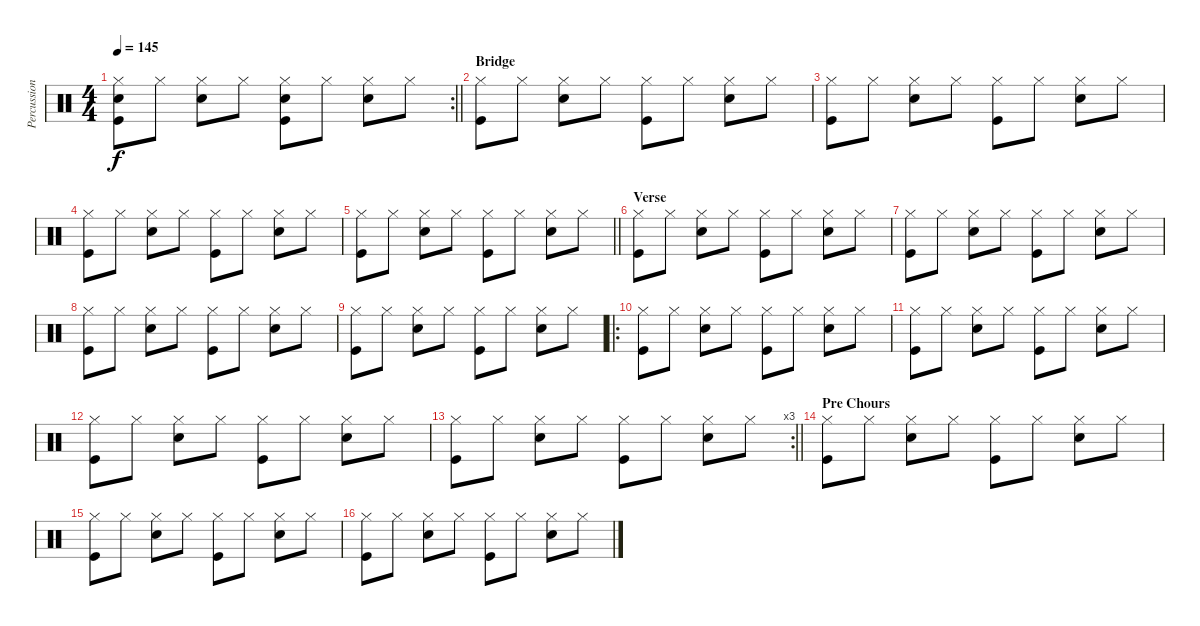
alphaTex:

\track ("Percussion" "Percussion") {instrument percussion}
\staff {score}
\articulation defaults
\rc 2
\ts (4 4)
\tempo 145
\clef neutral
\barLineRight lightlight
\ks c
("Electric Snare (hit)" "Kick (hit)" "Hi-Hat (closed)").8{dy f} "Hi-Hat (closed)".8 ("Hi-Hat (closed)" "Electric Snare (hit)").8 "Hi-Hat (closed)".8 ("Hi-Hat (closed)" "Kick (hit)" "Electric Snare (hit)").8 "Hi-Hat (closed)".8 ("Hi-Hat (closed)" "Electric Snare (hit)").8 "Hi-Hat (closed)".8 |
\section ("" "Bridge")
("Hi-Hat (closed)" "Kick (hit)").8 "Hi-Hat (closed)".8 ("Hi-Hat (closed)" "Snare (hit) 2").8 "Hi-Hat (closed)".8 ("Hi-Hat (closed)" "Kick (hit)").8 "Hi-Hat (closed)".8 ("Hi-Hat (closed)" "Electric Snare (hit)").8 "Hi-Hat (closed)".8 |
("Hi-Hat (closed)" "Kick (hit)").8 "Hi-Hat (closed)".8 ("Hi-Hat (closed)" "Snare (hit) 2").8 "Hi-Hat (closed)".8 ("Hi-Hat (closed)" "Kick (hit)").8 "Hi-Hat (closed)".8 ("Hi-Hat (closed)" "Electric Snare (hit)").8 "Hi-Hat (closed)".8 |
("Hi-Hat (closed)" "Kick (hit)").8 "Hi-Hat (closed)".8 ("Hi-Hat (closed)" "Snare (hit) 2").8 "Hi-Hat (closed)".8 ("Hi-Hat (closed)" "Kick (hit)").8 "Hi-Hat (closed)".8 ("Hi-Hat (closed)" "Electric Snare (hit)").8 "Hi-Hat (closed)".8 |
\barLineRight lightlight
("Hi-Hat (closed)" "Kick (hit)").8 "Hi-Hat (closed)".8 ("Hi-Hat (closed)" "Snare (hit) 2").8 "Hi-Hat (closed)".8 ("Hi-Hat (closed)" "Kick (hit)").8 "Hi-Hat (closed)".8 ("Hi-Hat (closed)" "Electric Snare (hit)").8 "Hi-Hat (closed)".8 |
\section ("" "Verse")
("Hi-Hat (closed)" "Kick (hit)").8 "Hi-Hat (closed)".8 ("Hi-Hat (closed)" "Snare (hit) 2").8 "Hi-Hat (closed)".8 ("Hi-Hat (closed)" "Kick (hit)").8 "Hi-Hat (closed)".8 ("Hi-Hat (closed)" "Electric Snare (hit)").8 "Hi-Hat (closed)".8 |
("Hi-Hat (closed)" "Kick (hit)").8 "Hi-Hat (closed)".8 ("Hi-Hat (closed)" "Snare (hit) 2").8 "Hi-Hat (closed)".8 ("Hi-Hat (closed)" "Kick (hit)").8 "Hi-Hat (closed)".8 ("Hi-Hat (closed)" "Electric Snare (hit)").8 "Hi-Hat (closed)".8 |
("Hi-Hat (closed)" "Kick (hit)").8 "Hi-Hat (closed)".8 ("Hi-Hat (closed)" "Snare (hit) 2").8 "Hi-Hat (closed)".8 ("Hi-Hat (closed)" "Kick (hit)").8 "Hi-Hat (closed)".8 ("Hi-Hat (closed)" "Electric Snare (hit)").8 "Hi-Hat (closed)".8 |
("Hi-Hat (closed)" "Kick (hit)").8 "Hi-Hat (closed)".8 ("Hi-Hat (closed)" "Snare (hit) 2").8 "Hi-Hat (closed)".8 ("Hi-Hat (closed)" "Kick (hit)").8 "Hi-Hat (closed)".8 ("Hi-Hat (closed)" "Electric Snare (hit)").8 "Hi-Hat (closed)".8 |
\ro
("Hi-Hat (closed)" "Kick (hit)").8 "Hi-Hat (closed)".8 ("Hi-Hat (closed)" "Snare (hit) 2").8 "Hi-Hat (closed)".8 ("Hi-Hat (closed)" "Kick (hit)").8 "Hi-Hat (closed)".8 ("Hi-Hat (closed)" "Electric Snare (hit)").8 "Hi-Hat (closed)".8 |
("Hi-Hat (closed)" "Kick (hit)").8 "Hi-Hat (closed)".8 ("Hi-Hat (closed)" "Snare (hit) 2").8 "Hi-Hat (closed)".8 ("Hi-Hat (closed)" "Kick (hit)").8 "Hi-Hat (closed)".8 ("Hi-Hat (closed)" "Electric Snare (hit)").8 "Hi-Hat (closed)".8 |
("Hi-Hat (closed)" "Kick (hit)").8 "Hi-Hat (closed)".8 ("Hi-Hat (closed)" "Snare (hit) 2").8 "Hi-Hat (closed)".8 ("Hi-Hat (closed)" "Kick (hit)").8 "Hi-Hat (closed)".8 ("Hi-Hat (closed)" "Electric Snare (hit)").8 "Hi-Hat (closed)".8 |
\rc 3
\barLineRight lightlight
("Hi-Hat (closed)" "Kick (hit)").8 "Hi-Hat (closed)".8 ("Hi-Hat (closed)" "Snare (hit) 2").8 "Hi-Hat (closed)".8 ("Hi-Hat (closed)" "Kick (hit)").8 "Hi-Hat (closed)".8 ("Hi-Hat (closed)" "Electric Snare (hit)").8 "Hi-Hat (closed)".8 |
\section ("" "Pre Chours")
("Hi-Hat (closed)" "Kick (hit)").8 "Hi-Hat (closed)".8 ("Hi-Hat (closed)" "Snare (hit) 2").8 "Hi-Hat (closed)".8 ("Hi-Hat (closed)" "Kick (hit)").8 "Hi-Hat (closed)".8 ("Hi-Hat (closed)" "Electric Snare (hit)").8 "Hi-Hat (closed)".8 |
("Hi-Hat (closed)" "Kick (hit)").8 "Hi-Hat (closed)".8 ("Hi-Hat (closed)" "Snare (hit) 2").8 "Hi-Hat (closed)".8 ("Hi-Hat (closed)" "Kick (hit)").8 "Hi-Hat (closed)".8 ("Hi-Hat (closed)" "Electric Snare (hit)").8 "Hi-Hat (closed)".8 |
("Hi-Hat (closed)" "Kick (hit)").8 "Hi-Hat (closed)".8 ("Hi-Hat (closed)" "Snare (hit) 2").8 "Hi-Hat (closed)".8 ("Hi-Hat (closed)" "Kick (hit)").8 "Hi-Hat (closed)".8 ("Hi-Hat (closed)" "Electric Snare (hit)").8 "Hi-Hat (closed)".8
